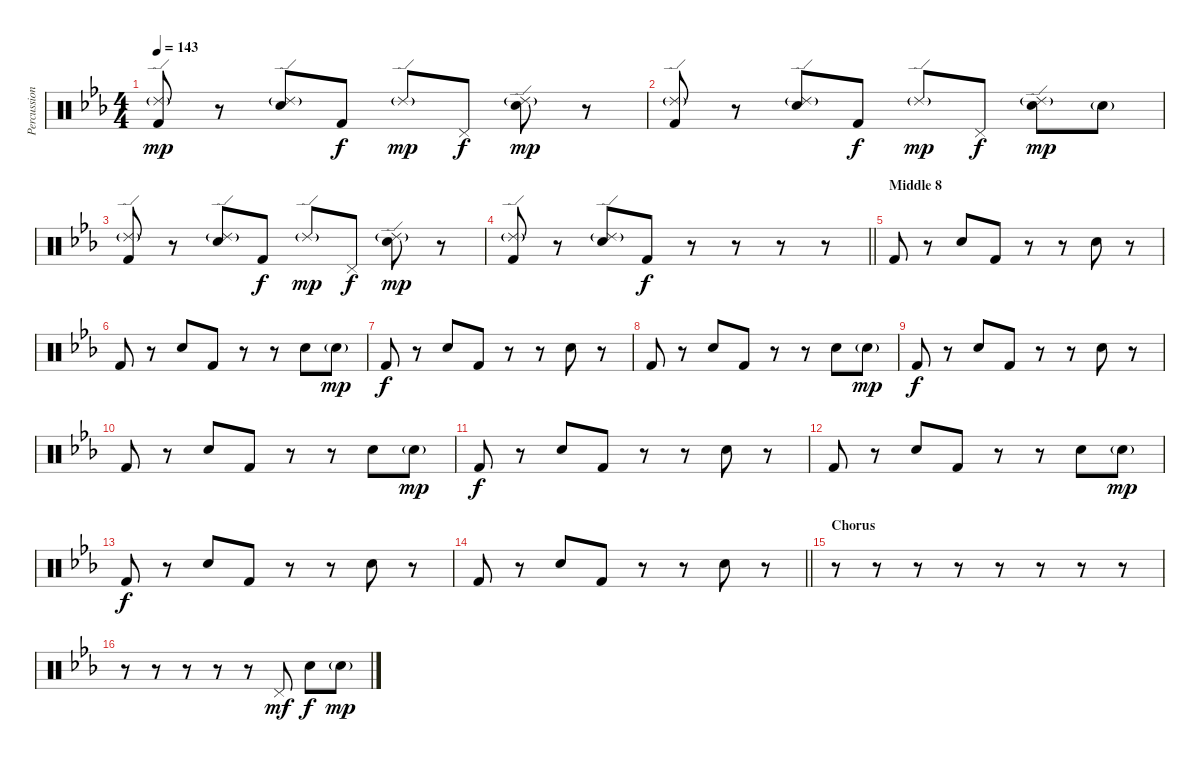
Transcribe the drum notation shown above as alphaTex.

\track ("Percussion" "Percussion") {instrument percussion}
\staff {score}
\articulation defaults
\ts (4 4)
\tempo 143
\clef neutral
\ks cminor
("Ride (edge) 2"{g} "Kick (hit) 2").8{dy mp} r.8 ("Ride (edge) 2"{g} "Electric Snare (hit)").8 "Kick (hit) 2".8{dy f} "Ride (edge) 2"{g}.8{dy mp} "Pedal Hi-Hat (hit)".8{dy f} ("Ride (edge) 2"{g} "Electric Snare (hit)").8{dy mp} r.8 |
("Ride (edge) 2"{g} "Kick (hit) 2").8 r.8 ("Ride (edge) 2"{g} "Electric Snare (hit)").8 "Kick (hit) 2".8{dy f} "Ride (edge) 2"{g}.8{dy mp} "Pedal Hi-Hat (hit)".8{dy f} ("Ride (edge) 2"{g} "Electric Snare (hit)").8{dy mp} "Electric Snare (hit)"{g}.8 |
("Ride (edge) 2"{g} "Kick (hit) 2").8 r.8 ("Ride (edge) 2"{g} "Electric Snare (hit)").8 "Kick (hit) 2".8{dy f} "Ride (edge) 2"{g}.8{dy mp} "Pedal Hi-Hat (hit)".8{dy f} ("Ride (edge) 2"{g} "Electric Snare (hit)").8{dy mp} r.8 |
\barLineRight lightlight
("Ride (edge) 2"{g} "Kick (hit) 2").8 r.8 ("Ride (edge) 2"{g} "Electric Snare (hit)").8 "Kick (hit) 2".8{dy f} r.8 r.8 r.8 r.8 |
\section ("" "Middle 8")
"Kick (hit) 2".8 r.8 "Electric Snare (hit)".8 "Kick (hit) 2".8 r.8 r.8 "Electric Snare (hit)".8 r.8 |
"Kick (hit) 2".8 r.8 "Electric Snare (hit)".8 "Kick (hit) 2".8 r.8 r.8 "Electric Snare (hit)".8 "Electric Snare (hit)"{g}.8{dy mp} |
"Kick (hit) 2".8{dy f} r.8 "Electric Snare (hit)".8 "Kick (hit) 2".8 r.8 r.8 "Electric Snare (hit)".8 r.8 |
"Kick (hit) 2".8 r.8 "Electric Snare (hit)".8 "Kick (hit) 2".8 r.8 r.8 "Electric Snare (hit)".8 "Electric Snare (hit)"{g}.8{dy mp} |
"Kick (hit) 2".8{dy f} r.8 "Electric Snare (hit)".8 "Kick (hit) 2".8 r.8 r.8 "Electric Snare (hit)".8 r.8 |
"Kick (hit) 2".8 r.8 "Electric Snare (hit)".8 "Kick (hit) 2".8 r.8 r.8 "Electric Snare (hit)".8 "Electric Snare (hit)"{g}.8{dy mp} |
"Kick (hit) 2".8{dy f} r.8 "Electric Snare (hit)".8 "Kick (hit) 2".8 r.8 r.8 "Electric Snare (hit)".8 r.8 |
"Kick (hit) 2".8 r.8 "Electric Snare (hit)".8 "Kick (hit) 2".8 r.8 r.8 "Electric Snare (hit)".8 "Electric Snare (hit)"{g}.8{dy mp} |
"Kick (hit) 2".8{dy f} r.8 "Electric Snare (hit)".8 "Kick (hit) 2".8 r.8 r.8 "Electric Snare (hit)".8 r.8 |
\barLineRight lightlight "Kick (hit) 2".8
r.8 "Electric Snare (hit)".8 "Kick (hit) 2".8 r.8 r.8 "Electric Snare (hit)".8 r.8 |
\section ("" "Chorus")
r.8 r.8 r.8 r.8 r.8 r.8 r.8 r.8 |
r.8 r.8 r.8 r.8 r.8 "Pedal Hi-Hat (hit)".8{dy mf} "Electric Snare (hit)".8{dy f} "Electric Snare (hit)"{g}.8{dy mp}
